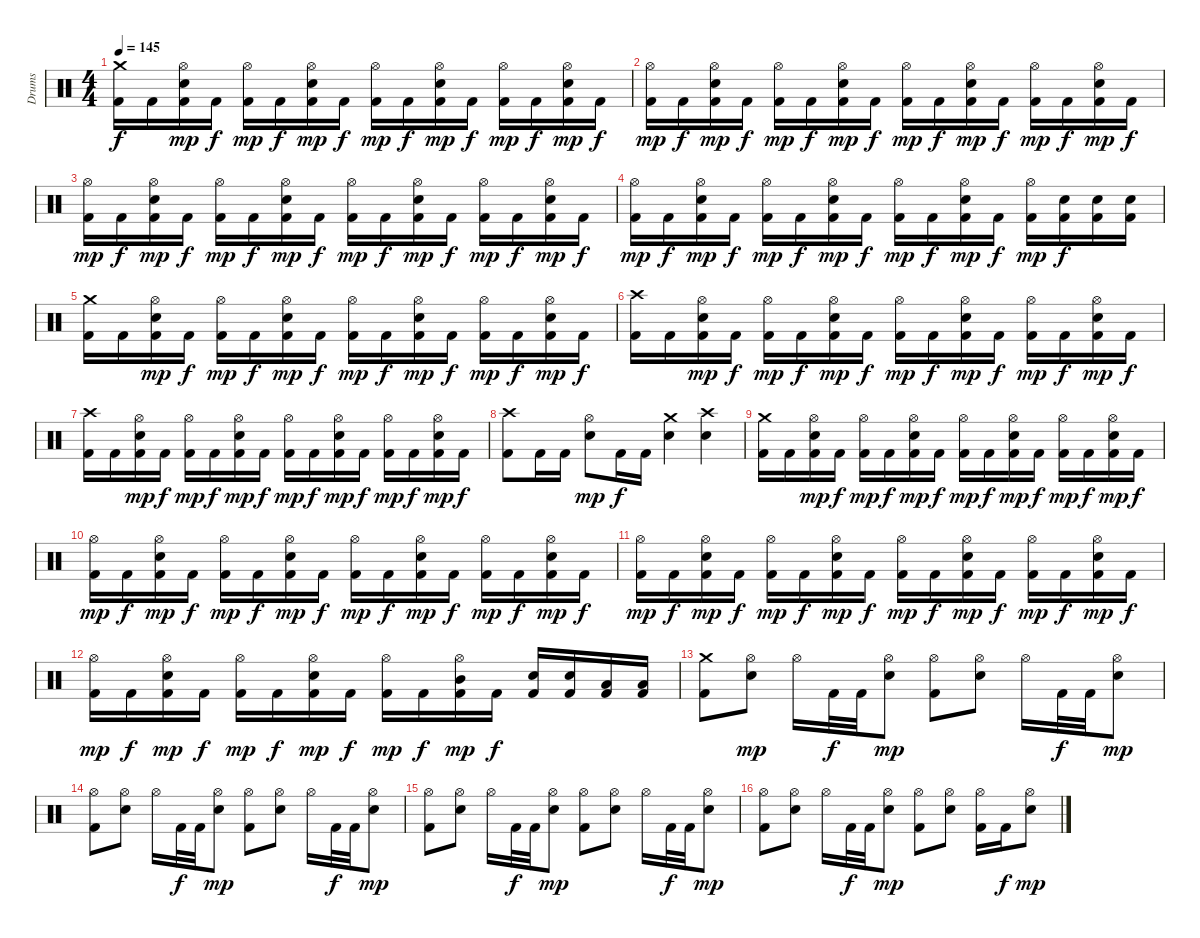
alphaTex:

\track ("Drums" "Drums") {instrument percussion}
\staff {score}
\articulation defaults
\ts (4 4)
\tempo 145
\clef neutral
\ks c
("Crash medium (hit)" "Kick (hit) 2").16{dy f} "Kick (hit) 2".16 ("Hi-Hat (open)" "Kick (hit) 2" "Electric Snare (hit)").16{dy mp} "Kick (hit) 2".16{dy f} ("Hi-Hat (open)" "Kick (hit) 2").16{dy mp} "Kick (hit) 2".16{dy f} ("Hi-Hat (open)" "Kick (hit) 2" "Electric Snare (hit)").16{dy mp} "Kick (hit) 2".16{dy f} ("Hi-Hat (open)" "Kick (hit) 2").16{dy mp} "Kick (hit) 2".16{dy f} ("Hi-Hat (open)" "Kick (hit) 2" "Electric Snare (hit)").16{dy mp} "Kick (hit) 2".16{dy f} ("Hi-Hat (open)" "Kick (hit) 2").16{dy mp} "Kick (hit) 2".16{dy f} ("Hi-Hat (open)" "Kick (hit) 2" "Electric Snare (hit)").16{dy mp} "Kick (hit) 2".16{dy f} |
("Hi-Hat (open)" "Kick (hit) 2").16{dy mp} "Kick (hit) 2".16{dy f} ("Hi-Hat (open)" "Kick (hit) 2" "Electric Snare (hit)").16{dy mp} "Kick (hit) 2".16{dy f} ("Hi-Hat (open)" "Kick (hit) 2").16{dy mp} "Kick (hit) 2".16{dy f} ("Hi-Hat (open)" "Kick (hit) 2" "Electric Snare (hit)").16{dy mp} "Kick (hit) 2".16{dy f} ("Hi-Hat (open)" "Kick (hit) 2").16{dy mp} "Kick (hit) 2".16{dy f} ("Hi-Hat (open)" "Kick (hit) 2" "Electric Snare (hit)").16{dy mp} "Kick (hit) 2".16{dy f} ("Hi-Hat (open)" "Kick (hit) 2").16{dy mp} "Kick (hit) 2".16{dy f} ("Hi-Hat (open)" "Kick (hit) 2" "Electric Snare (hit)").16{dy mp} "Kick (hit) 2".16{dy f} |
("Hi-Hat (open)" "Kick (hit) 2").16{dy mp} "Kick (hit) 2".16{dy f} ("Hi-Hat (open)" "Kick (hit) 2" "Electric Snare (hit)").16{dy mp} "Kick (hit) 2".16{dy f} ("Hi-Hat (open)" "Kick (hit) 2").16{dy mp} "Kick (hit) 2".16{dy f} ("Hi-Hat (open)" "Kick (hit) 2" "Electric Snare (hit)").16{dy mp} "Kick (hit) 2".16{dy f} ("Hi-Hat (open)" "Kick (hit) 2").16{dy mp} "Kick (hit) 2".16{dy f} ("Hi-Hat (open)" "Kick (hit) 2" "Electric Snare (hit)").16{dy mp} "Kick (hit) 2".16{dy f} ("Hi-Hat (open)" "Kick (hit) 2").16{dy mp} "Kick (hit) 2".16{dy f} ("Hi-Hat (open)" "Kick (hit) 2" "Electric Snare (hit)").16{dy mp} "Kick (hit) 2".16{dy f} |
("Hi-Hat (open)" "Kick (hit) 2").16{dy mp} "Kick (hit) 2".16{dy f} ("Hi-Hat (open)" "Kick (hit) 2" "Electric Snare (hit)").16{dy mp} "Kick (hit) 2".16{dy f} ("Hi-Hat (open)" "Kick (hit) 2").16{dy mp} "Kick (hit) 2".16{dy f} ("Hi-Hat (open)" "Kick (hit) 2" "Electric Snare (hit)").16{dy mp} "Kick (hit) 2".16{dy f} ("Hi-Hat (open)" "Kick (hit) 2").16{dy mp} "Kick (hit) 2".16{dy f} ("Hi-Hat (open)" "Kick (hit) 2" "Electric Snare (hit)").16{dy mp} "Kick (hit) 2".16{dy f} ("Hi-Hat (open)" "Kick (hit) 2").16{dy mp} ("Electric Snare (hit)" "Kick (hit) 2").16{dy f} ("Electric Snare (hit)" "Kick (hit) 2").16 ("Electric Snare (hit)" "Kick (hit) 2").16 |
("Crash medium (hit)" "Kick (hit) 2").16 "Kick (hit) 2".16 ("Hi-Hat (open)" "Kick (hit) 2" "Electric Snare (hit)").16{dy mp} "Kick (hit) 2".16{dy f} ("Hi-Hat (open)" "Kick (hit) 2").16{dy mp} "Kick (hit) 2".16{dy f} ("Hi-Hat (open)" "Kick (hit) 2" "Electric Snare (hit)").16{dy mp} "Kick (hit) 2".16{dy f} ("Hi-Hat (open)" "Kick (hit) 2").16{dy mp} "Kick (hit) 2".16{dy f} ("Hi-Hat (open)" "Kick (hit) 2" "Electric Snare (hit)").16{dy mp} "Kick (hit) 2".16{dy f} ("Hi-Hat (open)" "Kick (hit) 2").16{dy mp} "Kick (hit) 2".16{dy f} ("Hi-Hat (open)" "Kick (hit) 2" "Electric Snare (hit)").16{dy mp} "Kick (hit) 2".16{dy f} |
("Crash high (hit)" "Kick (hit) 2").16 "Kick (hit) 2".16 ("Hi-Hat (open)" "Kick (hit) 2" "Electric Snare (hit)").16{dy mp} "Kick (hit) 2".16{dy f} ("Hi-Hat (open)" "Kick (hit) 2").16{dy mp} "Kick (hit) 2".16{dy f} ("Hi-Hat (open)" "Kick (hit) 2" "Electric Snare (hit)").16{dy mp} "Kick (hit) 2".16{dy f} ("Hi-Hat (open)" "Kick (hit) 2").16{dy mp} "Kick (hit) 2".16{dy f} ("Hi-Hat (open)" "Kick (hit) 2" "Electric Snare (hit)").16{dy mp} "Kick (hit) 2".16{dy f} ("Hi-Hat (open)" "Kick (hit) 2").16{dy mp} "Kick (hit) 2".16{dy f} ("Hi-Hat (open)" "Kick (hit) 2" "Electric Snare (hit)").16{dy mp} "Kick (hit) 2".16{dy f} |
("Crash high (hit)" "Kick (hit) 2").16 "Kick (hit) 2".16 ("Hi-Hat (open)" "Kick (hit) 2" "Electric Snare (hit)").16{dy mp} "Kick (hit) 2".16{dy f} ("Hi-Hat (open)" "Kick (hit) 2").16{dy mp} "Kick (hit) 2".16{dy f} ("Hi-Hat (open)" "Kick (hit) 2" "Electric Snare (hit)").16{dy mp} "Kick (hit) 2".16{dy f} ("Hi-Hat (open)" "Kick (hit) 2").16{dy mp} "Kick (hit) 2".16{dy f} ("Hi-Hat (open)" "Kick (hit) 2" "Electric Snare (hit)").16{dy mp} "Kick (hit) 2".16{dy f} ("Hi-Hat (open)" "Kick (hit) 2").16{dy mp} "Kick (hit) 2".16{dy f} ("Hi-Hat (open)" "Kick (hit) 2" "Electric Snare (hit)").16{dy mp} "Kick (hit) 2".16{dy f} |
("Crash high (hit)" "Kick (hit) 2").8 "Kick (hit) 2".16 "Kick (hit) 2".16 ("Hi-Hat (open)" "Electric Snare (hit)").8{dy mp} "Kick (hit) 2".16{dy f} "Kick (hit) 2".16 ("Crash medium (hit)" "Electric Snare (hit)").4 ("Crash high (hit)" "Electric Snare (hit)").4 |
("Crash medium (hit)" "Kick (hit) 2").16 "Kick (hit) 2".16 ("Hi-Hat (open)" "Kick (hit) 2" "Electric Snare (hit)").16{dy mp} "Kick (hit) 2".16{dy f} ("Hi-Hat (open)" "Kick (hit) 2").16{dy mp} "Kick (hit) 2".16{dy f} ("Hi-Hat (open)" "Kick (hit) 2" "Electric Snare (hit)").16{dy mp} "Kick (hit) 2".16{dy f} ("Hi-Hat (open)" "Kick (hit) 2").16{dy mp} "Kick (hit) 2".16{dy f} ("Hi-Hat (open)" "Kick (hit) 2" "Electric Snare (hit)").16{dy mp} "Kick (hit) 2".16{dy f} ("Hi-Hat (open)" "Kick (hit) 2").16{dy mp} "Kick (hit) 2".16{dy f} ("Hi-Hat (open)" "Kick (hit) 2" "Electric Snare (hit)").16{dy mp} "Kick (hit) 2".16{dy f} |
("Hi-Hat (open)" "Kick (hit) 2").16{dy mp} "Kick (hit) 2".16{dy f} ("Hi-Hat (open)" "Kick (hit) 2" "Electric Snare (hit)").16{dy mp} "Kick (hit) 2".16{dy f} ("Hi-Hat (open)" "Kick (hit) 2").16{dy mp} "Kick (hit) 2".16{dy f} ("Hi-Hat (open)" "Kick (hit) 2" "Electric Snare (hit)").16{dy mp} "Kick (hit) 2".16{dy f} ("Hi-Hat (open)" "Kick (hit) 2").16{dy mp} "Kick (hit) 2".16{dy f} ("Hi-Hat (open)" "Kick (hit) 2" "Electric Snare (hit)").16{dy mp} "Kick (hit) 2".16{dy f} ("Hi-Hat (open)" "Kick (hit) 2").16{dy mp} "Kick (hit) 2".16{dy f} ("Hi-Hat (open)" "Kick (hit) 2" "Electric Snare (hit)").16{dy mp} "Kick (hit) 2".16{dy f} |
("Hi-Hat (open)" "Kick (hit) 2").16{dy mp} "Kick (hit) 2".16{dy f} ("Hi-Hat (open)" "Kick (hit) 2" "Electric Snare (hit)").16{dy mp} "Kick (hit) 2".16{dy f} ("Hi-Hat (open)" "Kick (hit) 2").16{dy mp} "Kick (hit) 2".16{dy f} ("Hi-Hat (open)" "Kick (hit) 2" "Electric Snare (hit)").16{dy mp} "Kick (hit) 2".16{dy f} ("Hi-Hat (open)" "Kick (hit) 2").16{dy mp} "Kick (hit) 2".16{dy f} ("Hi-Hat (open)" "Kick (hit) 2" "Electric Snare (hit)").16{dy mp} "Kick (hit) 2".16{dy f} ("Hi-Hat (open)" "Kick (hit) 2").16{dy mp} "Kick (hit) 2".16{dy f} ("Hi-Hat (open)" "Kick (hit) 2" "Electric Snare (hit)").16{dy mp} "Kick (hit) 2".16{dy f} |
("Hi-Hat (open)" "Kick (hit) 2").16{dy mp} "Kick (hit) 2".16{dy f} ("Hi-Hat (open)" "Kick (hit) 2" "Electric Snare (hit)").16{dy mp} "Kick (hit) 2".16{dy f} ("Hi-Hat (open)" "Kick (hit) 2").16{dy mp} "Kick (hit) 2".16{dy f} ("Hi-Hat (open)" "Kick (hit) 2" "Electric Snare (hit)").16{dy mp} "Kick (hit) 2".16{dy f} ("Hi-Hat (open)" "Kick (hit) 2").16{dy mp} "Kick (hit) 2".16{dy f} ("Hi-Hat (open)" "Kick (hit) 2" "Mid Tom (hit)").16{dy mp} "Kick (hit) 2".16{dy f} ("Electric Snare (hit)" "Kick (hit) 2").16 ("Electric Snare (hit)" "Kick (hit) 2").16 ("Low Tom (hit)" "Kick (hit) 2").16 ("Low Tom (hit)" "Kick (hit) 2").16 |
("Crash medium (hit)" "Kick (hit) 2").8 ("Hi-Hat (open)" "Electric Snare (hit)").8{dy mp} "Hi-Hat (open)".16 "Kick (hit) 2".32{dy f} "Kick (hit) 2".32 ("Hi-Hat (open)" "Electric Snare (hit)").8{dy mp} ("Hi-Hat (open)" "Kick (hit) 2").8 ("Hi-Hat (open)" "Electric Snare (hit)").8 "Hi-Hat (open)".16 "Kick (hit) 2".32{dy f} "Kick (hit) 2".32 ("Hi-Hat (open)" "Electric Snare (hit)").8{dy mp} |
("Hi-Hat (open)" "Kick (hit) 2").8 ("Hi-Hat (open)" "Electric Snare (hit)").8 "Hi-Hat (open)".16 "Kick (hit) 2".32{dy f} "Kick (hit) 2".32 ("Hi-Hat (open)" "Electric Snare (hit)").8{dy mp} ("Hi-Hat (open)" "Kick (hit) 2").8 ("Hi-Hat (open)" "Electric Snare (hit)").8 "Hi-Hat (open)".16 "Kick (hit) 2".32{dy f} "Kick (hit) 2".32 ("Hi-Hat (open)" "Electric Snare (hit)").8{dy mp} |
("Hi-Hat (open)" "Kick (hit) 2").8 ("Hi-Hat (open)" "Electric Snare (hit)").8 "Hi-Hat (open)".16 "Kick (hit) 2".32{dy f} "Kick (hit) 2".32 ("Hi-Hat (open)" "Electric Snare (hit)").8{dy mp} ("Hi-Hat (open)" "Kick (hit) 2").8 ("Hi-Hat (open)" "Electric Snare (hit)").8 "Hi-Hat (open)".16 "Kick (hit) 2".32{dy f} "Kick (hit) 2".32 ("Hi-Hat (open)" "Electric Snare (hit)").8{dy mp} |
("Hi-Hat (open)" "Kick (hit) 2").8 ("Hi-Hat (open)" "Electric Snare (hit)").8 "Hi-Hat (open)".16 "Kick (hit) 2".32{dy f} "Kick (hit) 2".32 ("Hi-Hat (open)" "Electric Snare (hit)").8{dy mp} ("Hi-Hat (open)" "Kick (hit) 2").8 ("Hi-Hat (open)" "Electric Snare (hit)").8 ("Hi-Hat (open)" "Kick (hit) 2").16 "Kick (hit) 2".16{dy f} ("Hi-Hat (open)" "Electric Snare (hit)").8{dy mp}
